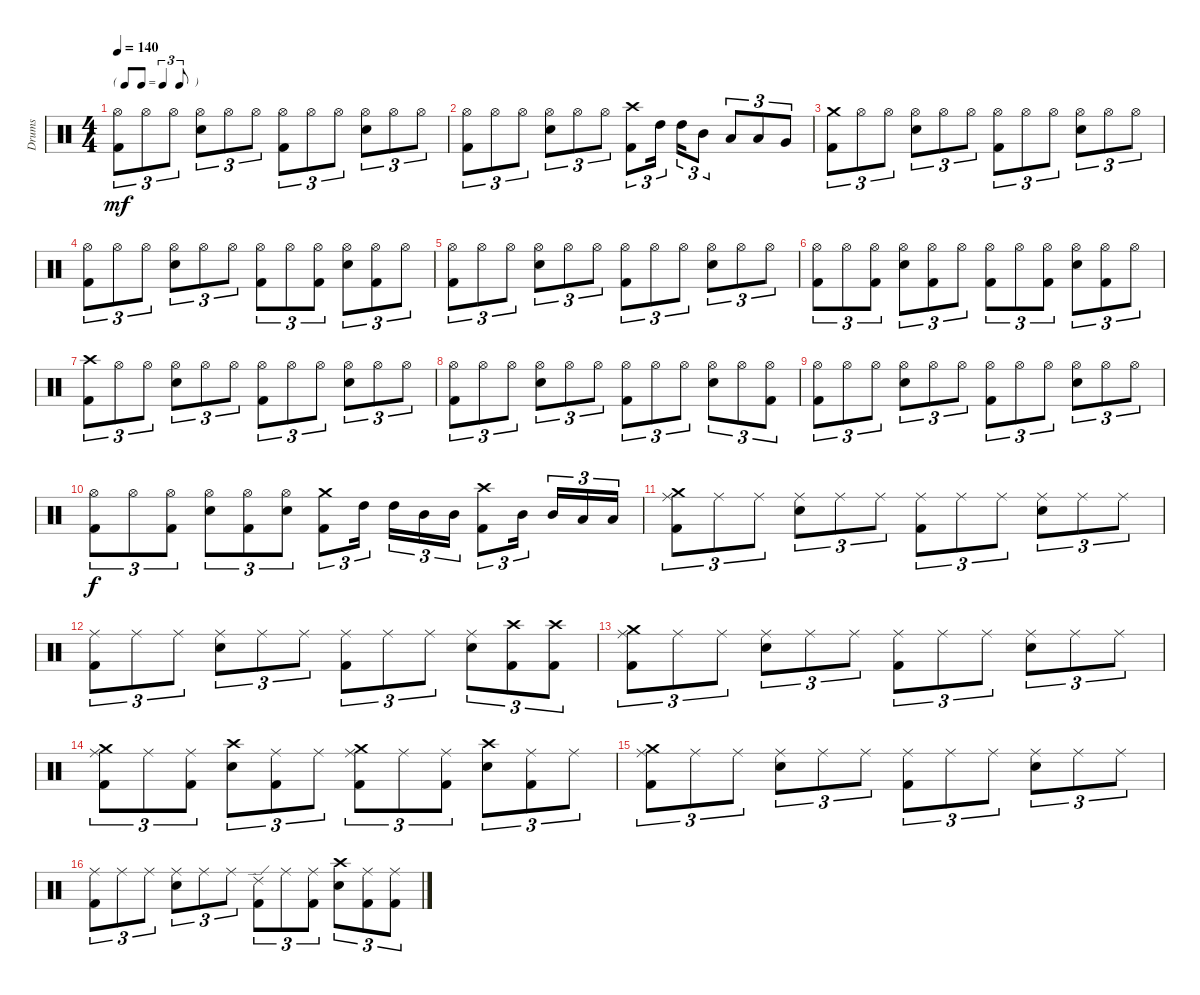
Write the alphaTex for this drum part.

\track ("Drums" "Drums") {instrument percussion}
\staff {score}
\articulation defaults
\ts (4 4)
\tf triplet8th
\tempo 140
\clef neutral
\ks c
("Hi-Hat (open)" "Kick (hit) 2").8{tu (3 2) dy mf} "Hi-Hat (open)".8{tu (3 2)} "Hi-Hat (open)".8{tu (3 2)} ("Hi-Hat (open)" "Snare (hit) 2").8{tu (3 2)} "Hi-Hat (open)".8{tu (3 2)} "Hi-Hat (open)".8{tu (3 2)} ("Hi-Hat (open)" "Kick (hit) 2").8{tu (3 2)} "Hi-Hat (open)".8{tu (3 2)} "Hi-Hat (open)".8{tu (3 2)} ("Hi-Hat (open)" "Snare (hit) 2").8{tu (3 2)} "Hi-Hat (open)".8{tu (3 2)} "Hi-Hat (open)".8{tu (3 2)} |
("Hi-Hat (open)" "Kick (hit) 2").8{tu (3 2)} "Hi-Hat (open)".8{tu (3 2)} "Hi-Hat (open)".8{tu (3 2)} ("Hi-Hat (open)" "Snare (hit) 2").8{tu (3 2)} "Hi-Hat (open)".8{tu (3 2)} "Hi-Hat (open)".8{tu (3 2)} ("Crash high (hit)" "Kick (hit) 2").8{tu (3 2)} "High Tom (hit)".16{tu (3 2) beam splitsecondary} "High Tom (hit)".16{tu (3 2)} "Mid Tom (hit)".8{tu (3 2)} "Low Tom (hit)".8{tu (3 2)} "Low Tom (hit)".8{tu (3 2)} "Very Low Tom (hit)".8{tu (3 2)} |
("Crash medium (hit)" "Kick (hit) 2").8{tu (3 2)} "Hi-Hat (open)".8{tu (3 2)} "Hi-Hat (open)".8{tu (3 2)} ("Hi-Hat (open)" "Snare (hit) 2").8{tu (3 2)} "Hi-Hat (open)".8{tu (3 2)} "Hi-Hat (open)".8{tu (3 2)} ("Hi-Hat (open)" "Kick (hit) 2").8{tu (3 2)} "Hi-Hat (open)".8{tu (3 2)} "Hi-Hat (open)".8{tu (3 2)} ("Hi-Hat (open)" "Snare (hit) 2").8{tu (3 2)} "Hi-Hat (open)".8{tu (3 2)} "Hi-Hat (open)".8{tu (3 2)} |
("Hi-Hat (open)" "Kick (hit) 2").8{tu (3 2)} "Hi-Hat (open)".8{tu (3 2)} "Hi-Hat (open)".8{tu (3 2)} ("Hi-Hat (open)" "Snare (hit) 2").8{tu (3 2)} "Hi-Hat (open)".8{tu (3 2)} "Hi-Hat (open)".8{tu (3 2)} ("Hi-Hat (open)" "Kick (hit) 2").8{tu (3 2)} "Hi-Hat (open)".8{tu (3 2)} ("Hi-Hat (open)" "Kick (hit) 2").8{tu (3 2)} ("Hi-Hat (open)" "Snare (hit) 2").8{tu (3 2)} ("Hi-Hat (open)" "Kick (hit) 2").8{tu (3 2)} "Hi-Hat (open)".8{tu (3 2)} |
("Hi-Hat (open)" "Kick (hit) 2").8{tu (3 2)} "Hi-Hat (open)".8{tu (3 2)} "Hi-Hat (open)".8{tu (3 2)} ("Hi-Hat (open)" "Snare (hit) 2").8{tu (3 2)} "Hi-Hat (open)".8{tu (3 2)} "Hi-Hat (open)".8{tu (3 2)} ("Hi-Hat (open)" "Kick (hit) 2").8{tu (3 2)} "Hi-Hat (open)".8{tu (3 2)} "Hi-Hat (open)".8{tu (3 2)} ("Hi-Hat (open)" "Snare (hit) 2").8{tu (3 2)} "Hi-Hat (open)".8{tu (3 2)} "Hi-Hat (open)".8{tu (3 2)} |
("Hi-Hat (open)" "Kick (hit) 2").8{tu (3 2)} "Hi-Hat (open)".8{tu (3 2)} ("Hi-Hat (open)" "Kick (hit) 2").8{tu (3 2)} ("Hi-Hat (open)" "Snare (hit) 2").8{tu (3 2)} ("Hi-Hat (open)" "Kick (hit) 2").8{tu (3 2)} "Hi-Hat (open)".8{tu (3 2)} ("Hi-Hat (open)" "Kick (hit) 2").8{tu (3 2)} "Hi-Hat (open)".8{tu (3 2)} ("Hi-Hat (open)" "Kick (hit) 2").8{tu (3 2)} ("Hi-Hat (open)" "Snare (hit) 2").8{tu (3 2)} ("Hi-Hat (open)" "Kick (hit) 2").8{tu (3 2)} "Hi-Hat (open)".8{tu (3 2)} |
("Crash high (hit)" "Kick (hit) 2").8{tu (3 2)} "Hi-Hat (open)".8{tu (3 2)} "Hi-Hat (open)".8{tu (3 2)} ("Hi-Hat (open)" "Snare (hit) 2").8{tu (3 2)} "Hi-Hat (open)".8{tu (3 2)} "Hi-Hat (open)".8{tu (3 2)} ("Hi-Hat (open)" "Kick (hit) 2").8{tu (3 2)} "Hi-Hat (open)".8{tu (3 2)} "Hi-Hat (open)".8{tu (3 2)} ("Hi-Hat (open)" "Snare (hit) 2").8{tu (3 2)} "Hi-Hat (open)".8{tu (3 2)} "Hi-Hat (open)".8{tu (3 2)} |
("Hi-Hat (open)" "Kick (hit) 2").8{tu (3 2)} "Hi-Hat (open)".8{tu (3 2)} "Hi-Hat (open)".8{tu (3 2)} ("Hi-Hat (open)" "Snare (hit) 2").8{tu (3 2)} "Hi-Hat (open)".8{tu (3 2)} "Hi-Hat (open)".8{tu (3 2)} ("Hi-Hat (open)" "Kick (hit) 2").8{tu (3 2)} "Hi-Hat (open)".8{tu (3 2)} "Hi-Hat (open)".8{tu (3 2)} ("Hi-Hat (open)" "Snare (hit) 2").8{tu (3 2)} "Hi-Hat (open)".8{tu (3 2)} ("Hi-Hat (open)" "Kick (hit) 2").8{tu (3 2)} |
("Hi-Hat (open)" "Kick (hit) 2").8{tu (3 2)} "Hi-Hat (open)".8{tu (3 2)} "Hi-Hat (open)".8{tu (3 2)} ("Hi-Hat (open)" "Snare (hit) 2").8{tu (3 2)} "Hi-Hat (open)".8{tu (3 2)} "Hi-Hat (open)".8{tu (3 2)} ("Hi-Hat (open)" "Kick (hit) 2").8{tu (3 2)} "Hi-Hat (open)".8{tu (3 2)} "Hi-Hat (open)".8{tu (3 2)} ("Hi-Hat (open)" "Snare (hit) 2").8{tu (3 2)} "Hi-Hat (open)".8{tu (3 2)} "Hi-Hat (open)".8{tu (3 2)} |
("Hi-Hat (open)" "Kick (hit) 2").8{tu (3 2) dy f} "Hi-Hat (open)".8{tu (3 2)} ("Hi-Hat (open)" "Kick (hit) 2").8{tu (3 2)} ("Hi-Hat (open)" "Snare (hit) 2").8{tu (3 2)} ("Hi-Hat (open)" "Kick (hit) 2").8{tu (3 2)} ("Hi-Hat (open)" "Snare (hit) 2").8{tu (3 2)} ("Crash medium (hit)" "Kick (hit) 2").8{tu (3 2)} "High Tom (hit)".16{tu (3 2) beam splitsecondary} "High Tom (hit)".16{tu (3 2)} "Mid Tom (hit)".16{tu (3 2)} "Mid Tom (hit)".16{tu (3 2)} ("Crash high (hit)" "Kick (hit) 2").8{tu (3 2)} "Mid Tom (hit)".16{tu (3 2) beam splitsecondary} "Mid Tom (hit)".16{tu (3 2)} "Low Tom (hit)".16{tu (3 2)} "Low Tom (hit)".16{tu (3 2)} |
("Crash medium (hit)" "Ride (middle)" "Kick (hit) 2").8{tu (3 2)} "Ride (middle)".8{tu (3 2)} "Ride (middle)".8{tu (3 2)} ("Ride (middle)" "Snare (hit) 2").8{tu (3 2)} "Ride (middle)".8{tu (3 2)} "Ride (middle)".8{tu (3 2)} ("Ride (middle)" "Kick (hit) 2").8{tu (3 2)} "Ride (middle)".8{tu (3 2)} "Ride (middle)".8{tu (3 2)} ("Ride (middle)" "Snare (hit) 2").8{tu (3 2)} "Ride (middle)".8{tu (3 2)} "Ride (middle)".8{tu (3 2)} |
("Ride (middle)" "Kick (hit) 2").8{tu (3 2)} "Ride (middle)".8{tu (3 2)} "Ride (middle)".8{tu (3 2)} ("Ride (middle)" "Snare (hit) 2").8{tu (3 2)} "Ride (middle)".8{tu (3 2)} "Ride (middle)".8{tu (3 2)} ("Ride (middle)" "Kick (hit) 2").8{tu (3 2)} "Ride (middle)".8{tu (3 2)} "Ride (middle)".8{tu (3 2)} ("Ride (middle)" "Snare (hit) 2").8{tu (3 2)} ("Crash high (hit)" "Kick (hit) 2").8{tu (3 2)} ("Crash high (hit)" "Kick (hit) 2").8{tu (3 2)} |
("Crash medium (hit)" "Ride (middle)" "Kick (hit) 2").8{tu (3 2)} "Ride (middle)".8{tu (3 2)} "Ride (middle)".8{tu (3 2)} ("Ride (middle)" "Snare (hit) 2").8{tu (3 2)} "Ride (middle)".8{tu (3 2)} "Ride (middle)".8{tu (3 2)} ("Ride (middle)" "Kick (hit) 2").8{tu (3 2)} "Ride (middle)".8{tu (3 2)} "Ride (middle)".8{tu (3 2)} ("Ride (middle)" "Snare (hit) 2").8{tu (3 2)} "Ride (middle)".8{tu (3 2)} "Ride (middle)".8{tu (3 2)} |
("Crash medium (hit)" "Ride (middle)" "Kick (hit) 2").8{tu (3 2)} "Ride (middle)".8{tu (3 2)} ("Ride (middle)" "Kick (hit) 2").8{tu (3 2)} ("Crash high (hit)" "Snare (hit) 2").8{tu (3 2)} ("Ride (middle)" "Kick (hit) 2").8{tu (3 2)} "Ride (middle)".8{tu (3 2)} ("Crash medium (hit)" "Ride (middle)" "Kick (hit) 2").8{tu (3 2)} "Ride (middle)".8{tu (3 2)} ("Ride (middle)" "Kick (hit) 2").8{tu (3 2)} ("Crash high (hit)" "Snare (hit) 2").8{tu (3 2)} ("Ride (middle)" "Kick (hit) 2").8{tu (3 2)} "Ride (middle)".8{tu (3 2)} |
("Crash medium (hit)" "Ride (middle)" "Kick (hit) 2").8{tu (3 2)} "Ride (middle)".8{tu (3 2)} "Ride (middle)".8{tu (3 2)} ("Ride (middle)" "Snare (hit) 2").8{tu (3 2)} "Ride (middle)".8{tu (3 2)} "Ride (middle)".8{tu (3 2)} ("Ride (middle)" "Kick (hit) 2").8{tu (3 2)} "Ride (middle)".8{tu (3 2)} "Ride (middle)".8{tu (3 2)} ("Ride (middle)" "Snare (hit) 2").8{tu (3 2)} "Ride (middle)".8{tu (3 2)} "Ride (middle)".8{tu (3 2)} |
("Ride (middle)" "Kick (hit) 2").8{tu (3 2)} "Ride (middle)".8{tu (3 2)} "Ride (middle)".8{tu (3 2)} ("Ride (middle)" "Snare (hit) 2").8{tu (3 2)} "Ride (middle)".8{tu (3 2)} "Ride (middle)".8{tu (3 2)} ("Ride (edge) 2" "Kick (hit) 2").8{tu (3 2)} "Ride (middle)".8{tu (3 2)} ("Ride (middle)" "Kick (hit) 2").8{tu (3 2)} ("Crash high (hit)" "Snare (hit) 2").8{tu (3 2)} ("Ride (middle)" "Kick (hit) 2").8{tu (3 2)} ("Ride (middle)" "Kick (hit) 2").8{tu (3 2)}
